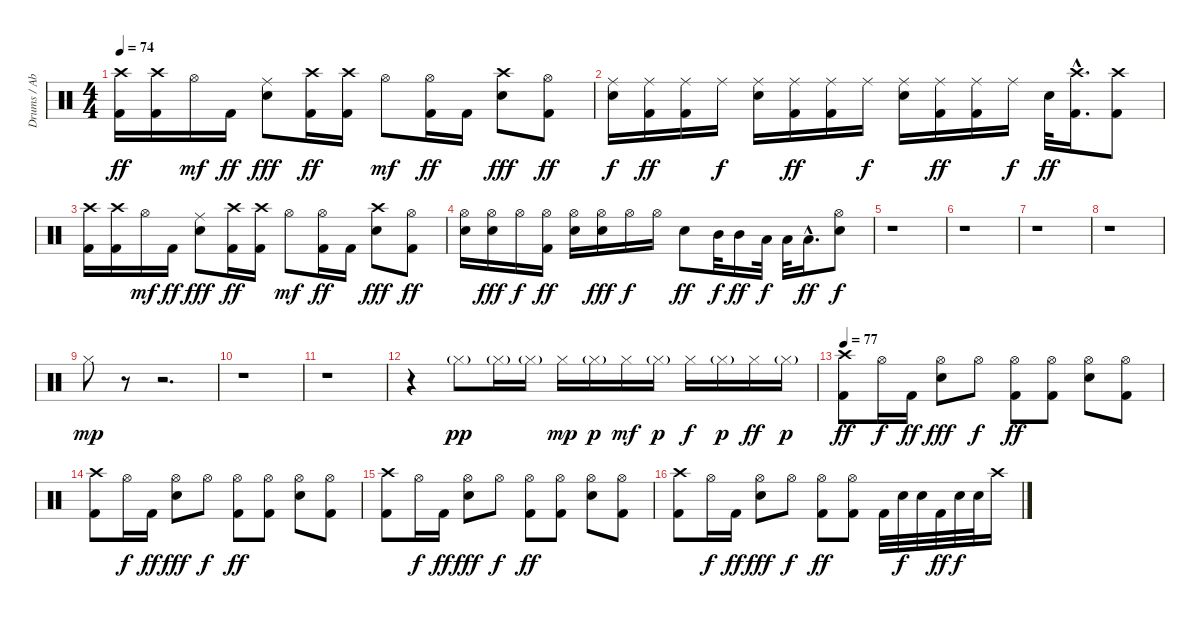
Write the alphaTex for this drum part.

\track ("Drums / Abe Cunningham" "Drums / Ab") {instrument percussion}
\staff {score}
\articulation defaults
\ts (4 4)
\tempo 74
\clef neutral
\ks c
("Crash high (hit)" "Kick (hit) 2").16{dy ff} ("Crash high (hit)" "Kick (hit) 2").16 "Hi-Hat (open)".16{dy mf} "Kick (hit) 2".16{dy ff} ("Ride (middle)" "Electric Snare (hit)").8{dy fff} ("Crash high (hit)" "Kick (hit) 2").16{dy ff} ("Crash high (hit)" "Kick (hit) 2").16 "Hi-Hat (open)".8{dy mf} ("Hi-Hat (open)" "Kick (hit) 2").16{dy ff} "Kick (hit) 2".16 ("Crash high (hit)" "Electric Snare (hit)").8{dy fff} ("Hi-Hat (open)" "Kick (hit) 2").8{dy ff} |
("Ride (middle)" "Electric Snare (hit)").16{dy f} ("Ride (middle)" "Kick (hit) 2").16{dy ff} ("Ride (middle)" "Kick (hit) 2").16 "Ride (middle)".16{dy f} ("Ride (middle)" "Electric Snare (hit)").16 ("Ride (middle)" "Kick (hit) 2").16{dy ff} ("Ride (middle)" "Kick (hit) 2").16 "Ride (middle)".16{dy f} ("Ride (middle)" "Electric Snare (hit)").16 ("Ride (middle)" "Kick (hit) 2").16{dy ff} ("Ride (middle)" "Kick (hit) 2").16 "Ride (middle)".16{dy f} "Electric Snare (hit)".32{dy ff} ("Crash high (hit)"{hac} "Kick (hit) 2"{hac}).16{d} ("Crash high (hit)" "Kick (hit) 2").8 |
("Crash high (hit)" "Kick (hit) 2").16 ("Crash high (hit)" "Kick (hit) 2").16 "Hi-Hat (open)".16{dy mf} "Kick (hit) 2".16{dy ff} ("Ride (middle)" "Electric Snare (hit)").8{dy fff} ("Crash high (hit)" "Kick (hit) 2").16{dy ff} ("Crash high (hit)" "Kick (hit) 2").16 "Hi-Hat (open)".8{dy mf} ("Hi-Hat (open)" "Kick (hit) 2").16{dy ff} "Kick (hit) 2".16 ("Crash high (hit)" "Electric Snare (hit)").8{dy fff} ("Hi-Hat (open)" "Kick (hit) 2").8{dy ff} |
("Hi-Hat (open)" "Electric Snare (hit)").16 ("Hi-Hat (open)" "Electric Snare (hit)").16{dy fff} "Hi-Hat (open)".16{dy f} ("Hi-Hat (open)" "Kick (hit) 2").16{dy ff} ("Hi-Hat (open)" "Electric Snare (hit)").16 ("Hi-Hat (open)" "Electric Snare (hit)").16{dy fff} "Hi-Hat (open)".16{dy f} "Hi-Hat (open)".16 "Electric Snare (hit)".8{dy ff} "Mid Tom (hit)".32{dy f} "Mid Tom (hit)".16{dy ff} "Low Tom (hit)".32{dy f} "Low Tom (hit)".32 "Low Tom (hit)"{hac}.16{d dy ff} ("Hi-Hat (open)" "Electric Snare (hit)").8{dy f} |
r.1 |
r.1 |
r.1 |
r.1 |
"Hi-Hat (closed)".8{dy mp} r.8 r.2{d} |
r.1 |
r.1 |
r.4 "Hi-Hat (closed)"{g}.8{dy pp} "Hi-Hat (closed)"{g}.16 "Hi-Hat (closed)"{g}.16 "Hi-Hat (closed)".16{dy mp} "Hi-Hat (closed)"{g}.16{dy p} "Hi-Hat (closed)".16{dy mf} "Hi-Hat (closed)"{g}.16{dy p} "Hi-Hat (closed)".16{dy f} "Hi-Hat (closed)"{g}.16{dy p} "Hi-Hat (closed)".16{dy ff} "Hi-Hat (closed)"{g}.16{dy p} |
\tempo 77
("Crash high (hit)" "Kick (hit) 2").8{dy ff} "Hi-Hat (open)".16{dy f} "Kick (hit) 2".16{dy ff} ("Hi-Hat (open)" "Electric Snare (hit)").8{dy fff} "Hi-Hat (open)".8{dy f} ("Hi-Hat (open)" "Kick (hit) 2").8{dy ff} ("Hi-Hat (open)" "Kick (hit) 2").8 ("Hi-Hat (open)" "Electric Snare (hit)").8 ("Hi-Hat (open)" "Kick (hit) 2").8 |
("Crash high (hit)" "Kick (hit) 2").8 "Hi-Hat (open)".16{dy f} "Kick (hit) 2".16{dy ff} ("Hi-Hat (open)" "Electric Snare (hit)").8{dy fff} "Hi-Hat (open)".8{dy f} ("Hi-Hat (open)" "Kick (hit) 2").8{dy ff} ("Hi-Hat (open)" "Kick (hit) 2").8 ("Hi-Hat (open)" "Electric Snare (hit)").8 ("Hi-Hat (open)" "Kick (hit) 2").8 |
("Crash high (hit)" "Kick (hit) 2").8 "Hi-Hat (open)".16{dy f} "Kick (hit) 2".16{dy ff} ("Hi-Hat (open)" "Electric Snare (hit)").8{dy fff} "Hi-Hat (open)".8{dy f} ("Hi-Hat (open)" "Kick (hit) 2").8{dy ff} ("Hi-Hat (open)" "Kick (hit) 2").8 ("Hi-Hat (open)" "Electric Snare (hit)").8 ("Hi-Hat (open)" "Kick (hit) 2").8 |
("Crash high (hit)" "Kick (hit) 2").8 "Hi-Hat (open)".16{dy f} "Kick (hit) 2".16{dy ff} ("Hi-Hat (open)" "Electric Snare (hit)").8{dy fff} "Hi-Hat (open)".8{dy f} ("Hi-Hat (open)" "Kick (hit) 2").8{dy ff} ("Hi-Hat (open)" "Kick (hit) 2").8 "Kick (hit) 2".32 "Electric Snare (hit)".32{dy f} "Electric Snare (hit)".32 "Kick (hit) 2".32{dy ff} "Electric Snare (hit)".32{dy f} "Electric Snare (hit)".32 "Crash high (hit)".16
